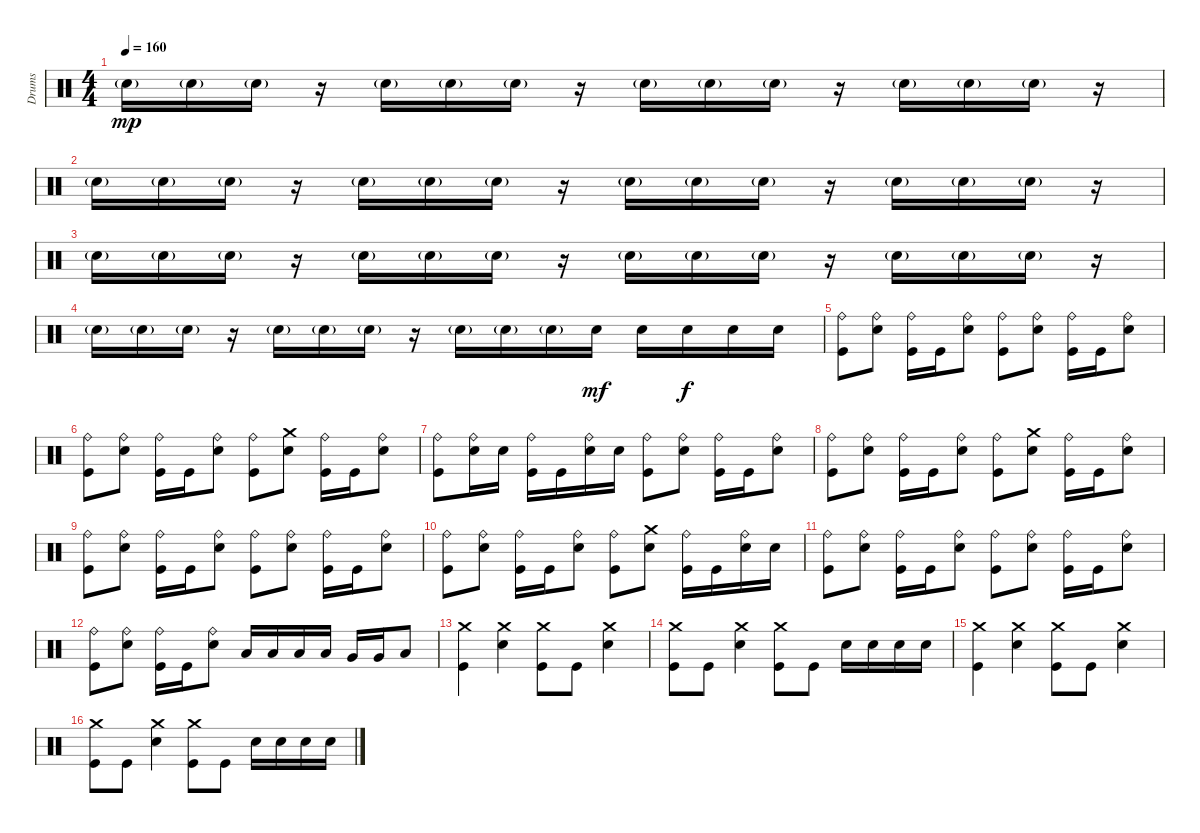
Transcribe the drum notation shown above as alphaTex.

\track ("Drums" "Drums") {instrument percussion}
\staff {score}
\articulation defaults
\ts (4 4)
\tempo 160
\clef neutral
\ks c "Electric Snare (hit)"{g}.16{dy mp} "Electric Snare (hit)"{g}.16 "Electric Snare (hit)"{g}.16
r.16 "Electric Snare (hit)"{g}.16 "Electric Snare (hit)"{g}.16 "Electric Snare (hit)"{g}.16 r.16 "Electric Snare (hit)"{g}.16 "Electric Snare (hit)"{g}.16 "Electric Snare (hit)"{g}.16 r.16 "Electric Snare (hit)"{g}.16 "Electric Snare (hit)"{g}.16 "Electric Snare (hit)"{g}.16 r.16 |
"Electric Snare (hit)"{g}.16 "Electric Snare (hit)"{g}.16 "Electric Snare (hit)"{g}.16 r.16 "Electric Snare (hit)"{g}.16 "Electric Snare (hit)"{g}.16 "Electric Snare (hit)"{g}.16 r.16 "Electric Snare (hit)"{g}.16 "Electric Snare (hit)"{g}.16 "Electric Snare (hit)"{g}.16 r.16 "Electric Snare (hit)"{g}.16 "Electric Snare (hit)"{g}.16 "Electric Snare (hit)"{g}.16 r.16 |
"Electric Snare (hit)"{g}.16 "Electric Snare (hit)"{g}.16 "Electric Snare (hit)"{g}.16 r.16 "Electric Snare (hit)"{g}.16 "Electric Snare (hit)"{g}.16 "Electric Snare (hit)"{g}.16 r.16 "Electric Snare (hit)"{g}.16 "Electric Snare (hit)"{g}.16 "Electric Snare (hit)"{g}.16 r.16 "Electric Snare (hit)"{g}.16 "Electric Snare (hit)"{g}.16 "Electric Snare (hit)"{g}.16 r.16 |
"Electric Snare (hit)"{g}.16 "Electric Snare (hit)"{g}.16 "Electric Snare (hit)"{g}.16 r.16 "Electric Snare (hit)"{g}.16 "Electric Snare (hit)"{g}.16 "Electric Snare (hit)"{g}.16 r.16 "Electric Snare (hit)"{g}.16 "Electric Snare (hit)"{g}.16 "Electric Snare (hit)"{g}.16 "Electric Snare (hit)".16{dy mf} "Electric Snare (hit)".16 "Electric Snare (hit)".16{dy f} "Electric Snare (hit)".16 "Electric Snare (hit)".16 |
("Ride (bell)" "Kick (hit)").8 ("Ride (bell)" "Electric Snare (hit)").8 ("Ride (bell)" "Kick (hit)").16 "Kick (hit)".16 ("Ride (bell)" "Electric Snare (hit)").8 ("Ride (bell)" "Kick (hit)").8 ("Ride (bell)" "Electric Snare (hit)").8 ("Ride (bell)" "Kick (hit)").16 "Kick (hit)".16 ("Ride (bell)" "Electric Snare (hit)").8 |
("Ride (bell)" "Kick (hit)").8 ("Ride (bell)" "Electric Snare (hit)").8 ("Ride (bell)" "Kick (hit)").16 "Kick (hit)".16 ("Ride (bell)" "Electric Snare (hit)").8 ("Ride (bell)" "Kick (hit)").8 ("Crash medium (hit)" "Electric Snare (hit)").8 ("Ride (bell)" "Kick (hit)").16 "Kick (hit)".16 ("Ride (bell)" "Electric Snare (hit)").8 |
("Ride (bell)" "Kick (hit)").8 ("Ride (bell)" "Electric Snare (hit)").16 "Electric Snare (hit)".16 ("Ride (bell)" "Kick (hit)").16 "Kick (hit)".16 ("Ride (bell)" "Electric Snare (hit)").16 "Electric Snare (hit)".16 ("Ride (bell)" "Kick (hit)").8 ("Ride (bell)" "Electric Snare (hit)").8 ("Ride (bell)" "Kick (hit)").16 "Kick (hit)".16 ("Ride (bell)" "Electric Snare (hit)").8 |
("Ride (bell)" "Kick (hit)").8 ("Ride (bell)" "Electric Snare (hit)").8 ("Ride (bell)" "Kick (hit)").16 "Kick (hit)".16 ("Ride (bell)" "Electric Snare (hit)").8 ("Ride (bell)" "Kick (hit)").8 ("Crash medium (hit)" "Electric Snare (hit)").8 ("Ride (bell)" "Kick (hit)").16 "Kick (hit)".16 ("Ride (bell)" "Electric Snare (hit)").8 |
("Ride (bell)" "Kick (hit)").8 ("Ride (bell)" "Electric Snare (hit)").8 ("Ride (bell)" "Kick (hit)").16 "Kick (hit)".16 ("Ride (bell)" "Electric Snare (hit)").8 ("Ride (bell)" "Kick (hit)").8 ("Ride (bell)" "Electric Snare (hit)").8 ("Ride (bell)" "Kick (hit)").16 "Kick (hit)".16 ("Ride (bell)" "Electric Snare (hit)").8 |
("Ride (bell)" "Kick (hit)").8 ("Ride (bell)" "Electric Snare (hit)").8 ("Ride (bell)" "Kick (hit)").16 "Kick (hit)".16 ("Ride (bell)" "Electric Snare (hit)").8 ("Ride (bell)" "Kick (hit)").8 ("Crash medium (hit)" "Electric Snare (hit)").8 ("Ride (bell)" "Kick (hit)").16 "Kick (hit)".16 ("Ride (bell)" "Electric Snare (hit)").16 "Electric Snare (hit)".16 |
("Ride (bell)" "Kick (hit)").8 ("Ride (bell)" "Electric Snare (hit)").8 ("Ride (bell)" "Kick (hit)").16 "Kick (hit)".16 ("Ride (bell)" "Electric Snare (hit)").8 ("Ride (bell)" "Kick (hit)").8 ("Ride (bell)" "Electric Snare (hit)").8 ("Ride (bell)" "Kick (hit)").16 "Kick (hit)".16 ("Ride (bell)" "Electric Snare (hit)").8 |
("Ride (bell)" "Kick (hit)").8 ("Ride (bell)" "Electric Snare (hit)").8 ("Ride (bell)" "Kick (hit)").16 "Kick (hit)".16 ("Ride (bell)" "Electric Snare (hit)").8 "Low Tom (hit)".16 "Low Tom (hit)".16 "Low Tom (hit)".16 "Low Tom (hit)".16 "Very Low Tom (hit)".16 "Very Low Tom (hit)".16 "Low Tom (hit)".8 |
("Crash medium (hit)" "Kick (hit)").4 ("Crash medium (hit)" "Electric Snare (hit)").4 ("Crash medium (hit)" "Kick (hit)").8 "Kick (hit)".8 ("Crash medium (hit)" "Electric Snare (hit)").4 |
("Crash medium (hit)" "Kick (hit)").8 "Kick (hit)".8 ("Crash medium (hit)" "Electric Snare (hit)").4 ("Crash medium (hit)" "Kick (hit)").8 "Kick (hit)".8 "Electric Snare (hit)".16 "Electric Snare (hit)".16 "Electric Snare (hit)".16 "Electric Snare (hit)".16 |
("Crash medium (hit)" "Kick (hit)").4 ("Crash medium (hit)" "Electric Snare (hit)").4 ("Crash medium (hit)" "Kick (hit)").8 "Kick (hit)".8 ("Crash medium (hit)" "Electric Snare (hit)").4 |
("Crash medium (hit)" "Kick (hit)").8 "Kick (hit)".8 ("Crash medium (hit)" "Electric Snare (hit)").4 ("Crash medium (hit)" "Kick (hit)").8 "Kick (hit)".8 "Electric Snare (hit)".16 "Electric Snare (hit)".16 "Electric Snare (hit)".16 "Electric Snare (hit)".16
